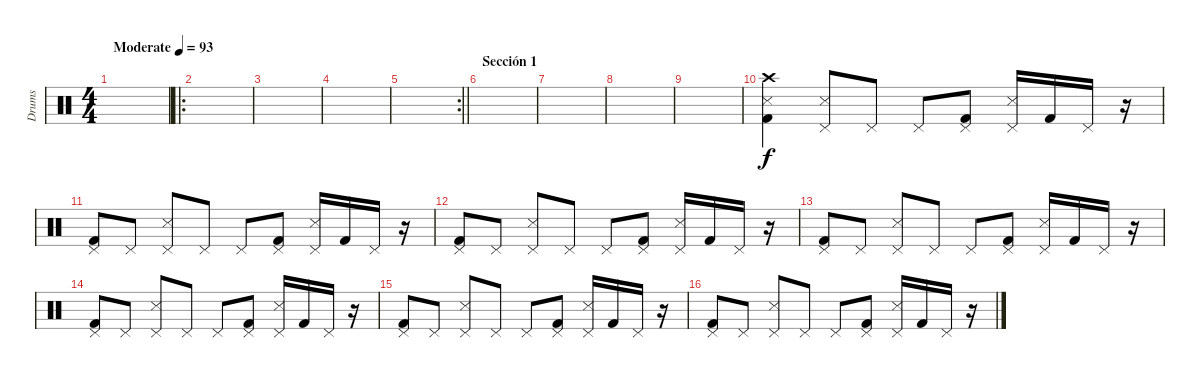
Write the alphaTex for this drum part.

\track ("Drums" "Drums") {instrument percussion}
\staff {score}
\articulation defaults
\ts (4 4)
\tempo (93 "Moderate")
\clef neutral
\ks c
|
\ro
|
|
|
\rc 2
\barLineRight lightlight
|
\section ("" "Sección 1")
|
|
|
|
("Crash high (hit)" "Snare (side stick) 3" "Kick (hit) 2").4{volume 16} ("Pedal Hi-Hat (hit)" "Snare (side stick) 3").8 "Pedal Hi-Hat (hit)".8 "Pedal Hi-Hat (hit)".8 ("Pedal Hi-Hat (hit)" "Kick (hit) 2").8 ("Pedal Hi-Hat (hit)" "Snare (side stick) 3").16 "Kick (hit) 2".16 "Pedal Hi-Hat (hit)".16 r.16 |
("Pedal Hi-Hat (hit)" "Kick (hit) 2").8 "Pedal Hi-Hat (hit)".8 ("Pedal Hi-Hat (hit)" "Snare (side stick) 3").8 "Pedal Hi-Hat (hit)".8 "Pedal Hi-Hat (hit)".8 ("Pedal Hi-Hat (hit)" "Kick (hit) 2").8 ("Pedal Hi-Hat (hit)" "Snare (side stick) 3").16 "Kick (hit) 2".16 "Pedal Hi-Hat (hit)".16 r.16 |
("Pedal Hi-Hat (hit)" "Kick (hit) 2").8 "Pedal Hi-Hat (hit)".8 ("Pedal Hi-Hat (hit)" "Snare (side stick) 3").8 "Pedal Hi-Hat (hit)".8 "Pedal Hi-Hat (hit)".8 ("Pedal Hi-Hat (hit)" "Kick (hit) 2").8 ("Pedal Hi-Hat (hit)" "Snare (side stick) 3").16 "Kick (hit) 2".16 "Pedal Hi-Hat (hit)".16 r.16 |
("Pedal Hi-Hat (hit)" "Kick (hit) 2").8 "Pedal Hi-Hat (hit)".8 ("Pedal Hi-Hat (hit)" "Snare (side stick) 3").8 "Pedal Hi-Hat (hit)".8 "Pedal Hi-Hat (hit)".8 ("Pedal Hi-Hat (hit)" "Kick (hit) 2").8 ("Pedal Hi-Hat (hit)" "Snare (side stick) 3").16 "Kick (hit) 2".16 "Pedal Hi-Hat (hit)".16 r.16 |
("Pedal Hi-Hat (hit)" "Kick (hit) 2").8 "Pedal Hi-Hat (hit)".8 ("Pedal Hi-Hat (hit)" "Snare (side stick) 3").8 "Pedal Hi-Hat (hit)".8 "Pedal Hi-Hat (hit)".8 ("Pedal Hi-Hat (hit)" "Kick (hit) 2").8 ("Pedal Hi-Hat (hit)" "Snare (side stick) 3").16 "Kick (hit) 2".16 "Pedal Hi-Hat (hit)".16 r.16 |
("Pedal Hi-Hat (hit)" "Kick (hit) 2").8 "Pedal Hi-Hat (hit)".8 ("Pedal Hi-Hat (hit)" "Snare (side stick) 3").8 "Pedal Hi-Hat (hit)".8 "Pedal Hi-Hat (hit)".8 ("Pedal Hi-Hat (hit)" "Kick (hit) 2").8 ("Pedal Hi-Hat (hit)" "Snare (side stick) 3").16 "Kick (hit) 2".16 "Pedal Hi-Hat (hit)".16 r.16 |
("Pedal Hi-Hat (hit)" "Kick (hit) 2").8 "Pedal Hi-Hat (hit)".8 ("Pedal Hi-Hat (hit)" "Snare (side stick) 3").8 "Pedal Hi-Hat (hit)".8 "Pedal Hi-Hat (hit)".8 ("Pedal Hi-Hat (hit)" "Kick (hit) 2").8 ("Pedal Hi-Hat (hit)" "Snare (side stick) 3").16 "Kick (hit) 2".16 "Pedal Hi-Hat (hit)".16 r.16
